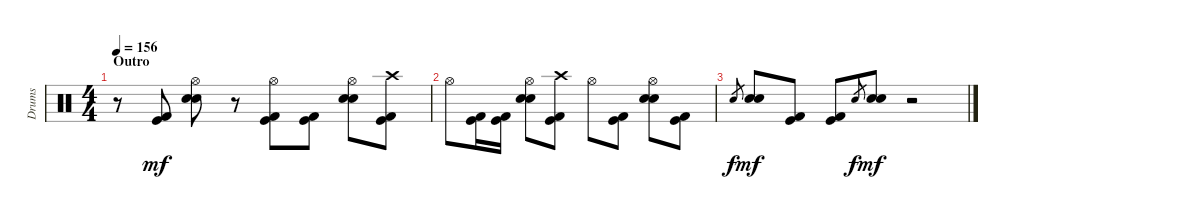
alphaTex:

\track ("Drums" "Drums") {instrument percussion}
\staff {score}
\articulation defaults
\ts (4 4)
\section ("" "Outro")
\tempo 156
\clef neutral
\ks c
r.8{dy mf} ("Kick (hit) 2" "Kick (hit)").8 ("Hi-Hat (open)" "Snare (hit) 2" "Electric Snare (hit)").8 r.8 ("Hi-Hat (open)" "Kick (hit) 2" "Kick (hit)").8 ("Kick (hit) 2" "Kick (hit)").8 ("Hi-Hat (open)" "Snare (hit) 2" "Electric Snare (hit)").8 ("Crash high (hit)" "Kick (hit) 2" "Kick (hit)").8 |
"Hi-Hat (open)".8 ("Kick (hit) 2" "Kick (hit)").16 ("Kick (hit) 2" "Kick (hit)").16 ("Hi-Hat (open)" "Snare (hit) 2" "Electric Snare (hit)").8 ("Crash high (hit)" "Kick (hit) 2" "Kick (hit)").8 "Hi-Hat (open)".8 ("Kick (hit) 2" "Kick (hit)").8 ("Hi-Hat (open)" "Snare (hit) 2" "Electric Snare (hit)").8 ("Kick (hit) 2" "Kick (hit)").8 |
"Electric Snare (hit)".8{gr dy f} ("Snare (hit) 2" "Electric Snare (hit)").8{dy mf} ("Kick (hit) 2" "Kick (hit)").8 ("Kick (hit) 2" "Kick (hit)").8 "Electric Snare (hit)".8{gr dy f} ("Snare (hit) 2" "Electric Snare (hit)").8{dy mf} r.2
